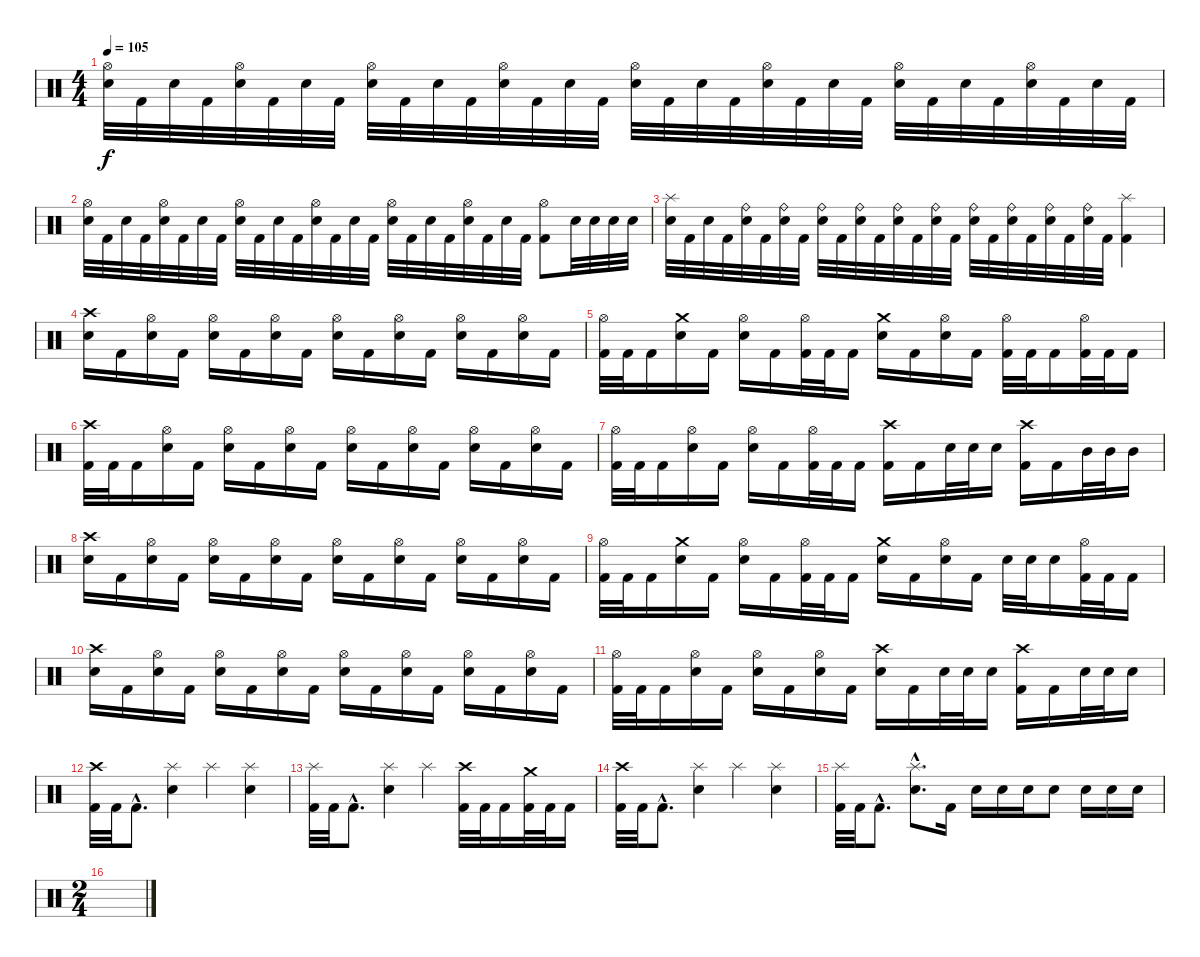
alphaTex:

\track "" {instrument percussion}
\staff {score}
\articulation defaults
\ts (4 4)
\tempo 105
\clef neutral
\ks c
("Hi-Hat (open)" "Electric Snare (hit)").32{dy f} "Kick (hit) 2".32 "Electric Snare (hit)".32 "Kick (hit) 2".32 ("Hi-Hat (open)" "Electric Snare (hit)").32 "Kick (hit) 2".32 "Electric Snare (hit)".32 "Kick (hit) 2".32 ("Hi-Hat (open)" "Electric Snare (hit)").32 "Kick (hit) 2".32 "Electric Snare (hit)".32 "Kick (hit) 2".32 ("Hi-Hat (open)" "Electric Snare (hit)").32 "Kick (hit) 2".32 "Electric Snare (hit)".32 "Kick (hit) 2".32 ("Hi-Hat (open)" "Electric Snare (hit)").32 "Kick (hit) 2".32 "Electric Snare (hit)".32 "Kick (hit) 2".32 ("Hi-Hat (open)" "Electric Snare (hit)").32 "Kick (hit) 2".32 "Electric Snare (hit)".32 "Kick (hit) 2".32 ("Hi-Hat (open)" "Electric Snare (hit)").32 "Kick (hit) 2".32 "Electric Snare (hit)".32 "Kick (hit) 2".32 ("Hi-Hat (open)" "Electric Snare (hit)").32 "Kick (hit) 2".32 "Electric Snare (hit)".32 "Kick (hit) 2".32 |
("Hi-Hat (open)" "Electric Snare (hit)").32 "Kick (hit) 2".32 "Electric Snare (hit)".32 "Kick (hit) 2".32 ("Hi-Hat (open)" "Electric Snare (hit)").32 "Kick (hit) 2".32 "Electric Snare (hit)".32 "Kick (hit) 2".32 ("Hi-Hat (open)" "Electric Snare (hit)").32 "Kick (hit) 2".32 "Electric Snare (hit)".32 "Kick (hit) 2".32 ("Hi-Hat (open)" "Electric Snare (hit)").32 "Kick (hit) 2".32 "Electric Snare (hit)".32 "Kick (hit) 2".32 ("Hi-Hat (open)" "Electric Snare (hit)").32 "Kick (hit) 2".32 "Electric Snare (hit)".32 "Kick (hit) 2".32 ("Hi-Hat (open)" "Electric Snare (hit)").32 "Kick (hit) 2".32 "Electric Snare (hit)".32 "Kick (hit) 2".32 ("Hi-Hat (open)" "Kick (hit) 2").8 "Electric Snare (hit)".32 "Electric Snare (hit)".32 "Electric Snare (hit)".32 "Electric Snare (hit)".32 |
("Splash (hit)" "Electric Snare (hit)").32 "Kick (hit) 2".32 "Electric Snare (hit)".32 "Kick (hit) 2".32 ("Ride (bell)" "Electric Snare (hit)").32 "Kick (hit) 2".32 ("Ride (bell)" "Electric Snare (hit)").32 "Kick (hit) 2".32 ("Ride (bell)" "Electric Snare (hit)").32 "Kick (hit) 2".32 ("Ride (bell)" "Electric Snare (hit)").32 "Kick (hit) 2".32 ("Ride (bell)" "Electric Snare (hit)").32 "Kick (hit) 2".32 ("Ride (bell)" "Electric Snare (hit)").32 "Kick (hit) 2".32 ("Ride (bell)" "Electric Snare (hit)").32 "Kick (hit) 2".32 ("Ride (bell)" "Electric Snare (hit)").32 "Kick (hit) 2".32 ("Ride (bell)" "Electric Snare (hit)").32 "Kick (hit) 2".32 ("Ride (bell)" "Electric Snare (hit)").32 "Kick (hit) 2".32 ("Splash (hit)" "Kick (hit) 2").4 |
\section ("" "")
("Crash high (hit)" "Electric Snare (hit)").16 "Kick (hit) 2".16 ("Hi-Hat (open)" "Electric Snare (hit)").16 "Kick (hit) 2".16 ("Hi-Hat (open)" "Electric Snare (hit)").16 "Kick (hit) 2".16 ("Hi-Hat (open)" "Electric Snare (hit)").16 "Kick (hit) 2".16 ("Hi-Hat (open)" "Electric Snare (hit)").16 "Kick (hit) 2".16 ("Hi-Hat (open)" "Electric Snare (hit)").16 "Kick (hit) 2".16 ("Hi-Hat (open)" "Electric Snare (hit)").16 "Kick (hit) 2".16 ("Hi-Hat (open)" "Electric Snare (hit)").16 "Kick (hit) 2".16 |
("Hi-Hat (open)" "Kick (hit) 2").32 "Kick (hit) 2".32 "Kick (hit) 2".16 ("Crash medium (hit)" "Electric Snare (hit)").16 "Kick (hit) 2".16 ("Hi-Hat (open)" "Electric Snare (hit)").16 "Kick (hit) 2".16 ("Hi-Hat (open)" "Kick (hit) 2").32 "Kick (hit) 2".32 "Kick (hit) 2".16 ("Crash medium (hit)" "Electric Snare (hit)").16 "Kick (hit) 2".16 ("Hi-Hat (open)" "Electric Snare (hit)").16 "Kick (hit) 2".16 ("Hi-Hat (open)" "Kick (hit) 2").32 "Kick (hit) 2".32 "Kick (hit) 2".16 ("Hi-Hat (open)" "Kick (hit) 2").32 "Kick (hit) 2".32 "Kick (hit) 2".16 |
("Crash high (hit)" "Kick (hit) 2").32 "Kick (hit) 2".32 "Kick (hit) 2".16 ("Hi-Hat (open)" "Electric Snare (hit)").16 "Kick (hit) 2".16 ("Hi-Hat (open)" "Electric Snare (hit)").16 "Kick (hit) 2".16 ("Hi-Hat (open)" "Electric Snare (hit)").16 "Kick (hit) 2".16 ("Hi-Hat (open)" "Electric Snare (hit)").16 "Kick (hit) 2".16 ("Hi-Hat (open)" "Electric Snare (hit)").16 "Kick (hit) 2".16 ("Hi-Hat (open)" "Electric Snare (hit)").16 "Kick (hit) 2".16 ("Hi-Hat (open)" "Electric Snare (hit)").16 "Kick (hit) 2".16 |
("Hi-Hat (open)" "Kick (hit) 2").32 "Kick (hit) 2".32 "Kick (hit) 2".16 ("Hi-Hat (open)" "Electric Snare (hit)").16 "Kick (hit) 2".16 ("Hi-Hat (open)" "Electric Snare (hit)").16 "Kick (hit) 2".16 ("Hi-Hat (open)" "Kick (hit) 2").32 "Kick (hit) 2".32 "Kick (hit) 2".16 ("Crash high (hit)" "Kick (hit) 2").16 "Kick (hit) 2".16 "Electric Snare (hit)".32 "Electric Snare (hit)".32 "Electric Snare (hit)".16 ("Crash high (hit)" "Kick (hit) 2").16 "Kick (hit) 2".16 "Mid Tom (hit)".32 "Mid Tom (hit)".32 "Mid Tom (hit)".16 |
("Crash high (hit)" "Electric Snare (hit)").16 "Kick (hit) 2".16 ("Hi-Hat (open)" "Electric Snare (hit)").16 "Kick (hit) 2".16 ("Hi-Hat (open)" "Electric Snare (hit)").16 "Kick (hit) 2".16 ("Hi-Hat (open)" "Electric Snare (hit)").16 "Kick (hit) 2".16 ("Hi-Hat (open)" "Electric Snare (hit)").16 "Kick (hit) 2".16 ("Hi-Hat (open)" "Electric Snare (hit)").16 "Kick (hit) 2".16 ("Hi-Hat (open)" "Electric Snare (hit)").16 "Kick (hit) 2".16 ("Hi-Hat (open)" "Electric Snare (hit)").16 "Kick (hit) 2".16 |
("Hi-Hat (open)" "Kick (hit) 2").32 "Kick (hit) 2".32 "Kick (hit) 2".16 ("Crash medium (hit)" "Electric Snare (hit)").16 "Kick (hit) 2".16 ("Hi-Hat (open)" "Electric Snare (hit)").16 "Kick (hit) 2".16 ("Hi-Hat (open)" "Kick (hit) 2").32 "Kick (hit) 2".32 "Kick (hit) 2".16 ("Crash medium (hit)" "Electric Snare (hit)").16 "Kick (hit) 2".16 ("Hi-Hat (open)" "Electric Snare (hit)").16 "Kick (hit) 2".16 "Electric Snare (hit)".32 "Electric Snare (hit)".32 "Electric Snare (hit)".16 ("Hi-Hat (open)" "Kick (hit) 2").32 "Kick (hit) 2".32 "Kick (hit) 2".16 |
("Crash high (hit)" "Electric Snare (hit)").16 "Kick (hit) 2".16 ("Hi-Hat (open)" "Electric Snare (hit)").16 "Kick (hit) 2".16 ("Hi-Hat (open)" "Electric Snare (hit)").16 "Kick (hit) 2".16 ("Hi-Hat (open)" "Electric Snare (hit)").16 "Kick (hit) 2".16 ("Hi-Hat (open)" "Electric Snare (hit)").16 "Kick (hit) 2".16 ("Hi-Hat (open)" "Electric Snare (hit)").16 "Kick (hit) 2".16 ("Hi-Hat (open)" "Electric Snare (hit)").16 "Kick (hit) 2".16 ("Hi-Hat (open)" "Electric Snare (hit)").16 "Kick (hit) 2".16 |
("Hi-Hat (open)" "Kick (hit) 2").32 "Kick (hit) 2".32 "Kick (hit) 2".16 ("Hi-Hat (open)" "Electric Snare (hit)").16 "Kick (hit) 2".16 ("Hi-Hat (open)" "Electric Snare (hit)").16 "Kick (hit) 2".16 ("Hi-Hat (open)" "Electric Snare (hit)").16 "Kick (hit) 2".16 ("Crash high (hit)" "Electric Snare (hit)").16 "Kick (hit) 2".16 "Electric Snare (hit)".32 "Electric Snare (hit)".32 "Electric Snare (hit)".16 ("Crash high (hit)" "Kick (hit) 2").16 "Kick (hit) 2".16 "Electric Snare (hit)".32 "Electric Snare (hit)".32 "Electric Snare (hit)".16 |
\section ("" "")
("Crash high (hit)" "Kick (hit) 2").32 "Kick (hit) 2".32 "Kick (hit) 2"{hac}.8{d} ("Splash (hit)" "Electric Snare (hit)").4 "Splash (hit)".4 ("Splash (hit)" "Electric Snare (hit)").4 |
("Splash (hit)" "Kick (hit) 2").32 "Kick (hit) 2".32 "Kick (hit) 2"{hac}.8{d} ("Splash (hit)" "Electric Snare (hit)").4 "Splash (hit)".4 ("Crash high (hit)" "Kick (hit) 2").32 "Kick (hit) 2".32 "Kick (hit) 2".16 ("Crash medium (hit)" "Kick (hit) 2").32 "Kick (hit) 2".32 "Kick (hit) 2".16 |
("Crash high (hit)" "Kick (hit) 2").32 "Kick (hit) 2".32 "Kick (hit) 2"{hac}.8{d} ("Splash (hit)" "Electric Snare (hit)").4 "Splash (hit)".4 ("Splash (hit)" "Electric Snare (hit)").4 |
("Splash (hit)" "Kick (hit) 2").32 "Kick (hit) 2".32 "Kick (hit) 2"{hac}.8{d} ("Splash (hit)"{hac} "Electric Snare (hit)"{hac}).8{d} "Kick (hit) 2".16 "Electric Snare (hit)".16 "Electric Snare (hit)".16 "Electric Snare (hit)".16 "Electric Snare (hit)".8 "Electric Snare (hit)".16 "Electric Snare (hit)".16 "Electric Snare (hit)".16 |
\ts (2 4)
